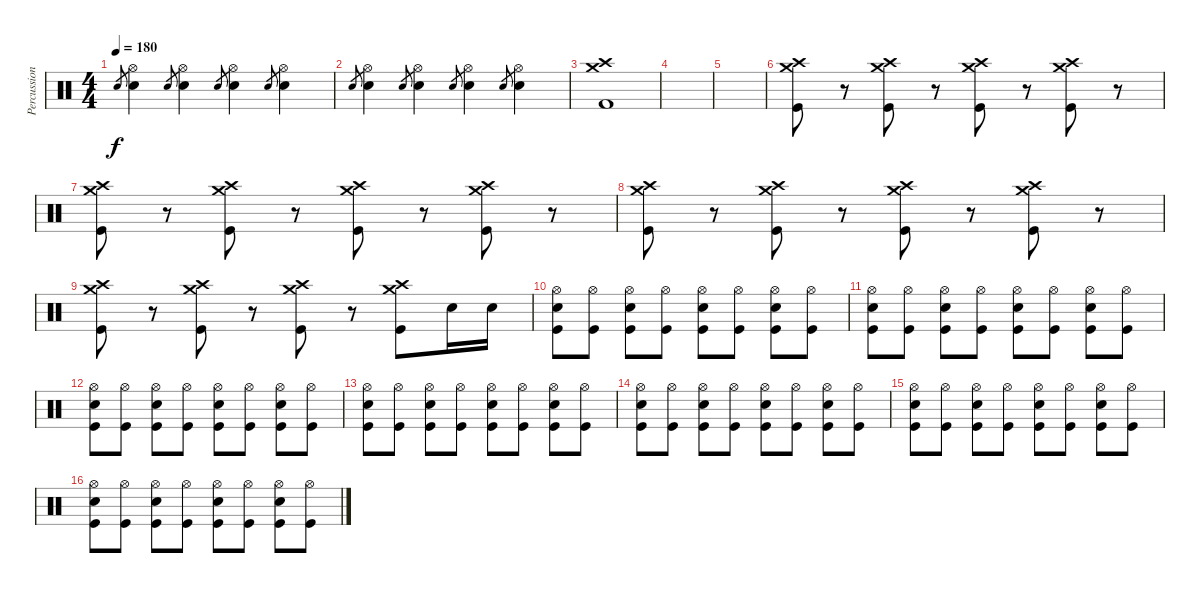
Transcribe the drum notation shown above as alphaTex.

\track ("Percussion" "Percussion") {instrument percussion}
\staff {score}
\articulation defaults
\ts (4 4)
\tempo 180
\clef neutral
\ks c "Snare (hit) 2".8{gr dy f}
("Hi-Hat (open)" "Snare (hit) 2").4 "Snare (hit) 2".8{gr} ("Hi-Hat (open)" "Snare (hit) 2").4 "Snare (hit) 2".8{gr} ("Hi-Hat (open)" "Snare (hit) 2").4 "Snare (hit) 2".8{gr} ("Hi-Hat (open)" "Snare (hit) 2").4 |
"Snare (hit) 2".8{gr} ("Hi-Hat (open)" "Snare (hit) 2").4 "Snare (hit) 2".8{gr} ("Hi-Hat (open)" "Snare (hit) 2").4 "Snare (hit) 2".8{gr} ("Hi-Hat (open)" "Snare (hit) 2").4 "Snare (hit) 2".8{gr} ("Hi-Hat (open)" "Snare (hit) 2").4 |
("Crash high (hit)" "Crash medium (hit)" "Kick (hit) 2").1 |
|
|
("Crash high (hit)" "Crash medium (hit)" "Kick (hit)").8 r.8 ("Crash high (hit)" "Crash medium (hit)" "Kick (hit)").8 r.8 ("Crash high (hit)" "Crash medium (hit)" "Kick (hit)").8 r.8 ("Crash high (hit)" "Crash medium (hit)" "Kick (hit)").8 r.8 |
("Crash high (hit)" "Crash medium (hit)" "Kick (hit)").8 r.8 ("Crash high (hit)" "Crash medium (hit)" "Kick (hit)").8 r.8 ("Crash high (hit)" "Crash medium (hit)" "Kick (hit)").8 r.8 ("Crash high (hit)" "Crash medium (hit)" "Kick (hit)").8 r.8 |
("Crash high (hit)" "Crash medium (hit)" "Kick (hit)").8 r.8 ("Crash high (hit)" "Crash medium (hit)" "Kick (hit)").8 r.8 ("Crash high (hit)" "Crash medium (hit)" "Kick (hit)").8 r.8 ("Crash high (hit)" "Crash medium (hit)" "Kick (hit)").8 r.8 |
("Crash high (hit)" "Crash medium (hit)" "Kick (hit)").8 r.8 ("Crash high (hit)" "Crash medium (hit)" "Kick (hit)").8 r.8 ("Crash high (hit)" "Crash medium (hit)" "Kick (hit)").8 r.8 ("Crash high (hit)" "Crash medium (hit)" "Kick (hit)").8 "Snare (hit) 2".16 "Snare (hit) 2".16 |
("Hi-Hat (open)" "Snare (hit) 2" "Kick (hit)").8 ("Hi-Hat (open)" "Kick (hit)").8 ("Hi-Hat (open)" "Snare (hit) 2" "Kick (hit)").8 ("Hi-Hat (open)" "Kick (hit)").8 ("Hi-Hat (open)" "Snare (hit) 2" "Kick (hit)").8 ("Hi-Hat (open)" "Kick (hit)").8 ("Hi-Hat (open)" "Snare (hit) 2" "Kick (hit)").8 ("Hi-Hat (open)" "Kick (hit)").8 |
("Hi-Hat (open)" "Snare (hit) 2" "Kick (hit)").8 ("Hi-Hat (open)" "Kick (hit)").8 ("Hi-Hat (open)" "Snare (hit) 2" "Kick (hit)").8 ("Hi-Hat (open)" "Kick (hit)").8 ("Hi-Hat (open)" "Snare (hit) 2" "Kick (hit)").8 ("Hi-Hat (open)" "Kick (hit)").8 ("Hi-Hat (open)" "Snare (hit) 2" "Kick (hit)").8 ("Hi-Hat (open)" "Kick (hit)").8 |
("Hi-Hat (open)" "Snare (hit) 2" "Kick (hit)").8 ("Hi-Hat (open)" "Kick (hit)").8 ("Hi-Hat (open)" "Snare (hit) 2" "Kick (hit)").8 ("Hi-Hat (open)" "Kick (hit)").8 ("Hi-Hat (open)" "Snare (hit) 2" "Kick (hit)").8 ("Hi-Hat (open)" "Kick (hit)").8 ("Hi-Hat (open)" "Snare (hit) 2" "Kick (hit)").8 ("Hi-Hat (open)" "Kick (hit)").8 |
("Hi-Hat (open)" "Snare (hit) 2" "Kick (hit)").8 ("Hi-Hat (open)" "Kick (hit)").8 ("Hi-Hat (open)" "Snare (hit) 2" "Kick (hit)").8 ("Hi-Hat (open)" "Kick (hit)").8 ("Hi-Hat (open)" "Snare (hit) 2" "Kick (hit)").8 ("Hi-Hat (open)" "Kick (hit)").8 ("Hi-Hat (open)" "Snare (hit) 2" "Kick (hit)").8 ("Hi-Hat (open)" "Kick (hit)").8 |
("Hi-Hat (open)" "Snare (hit) 2" "Kick (hit)").8 ("Hi-Hat (open)" "Kick (hit)").8 ("Hi-Hat (open)" "Snare (hit) 2" "Kick (hit)").8 ("Hi-Hat (open)" "Kick (hit)").8 ("Hi-Hat (open)" "Snare (hit) 2" "Kick (hit)").8 ("Hi-Hat (open)" "Kick (hit)").8 ("Hi-Hat (open)" "Snare (hit) 2" "Kick (hit)").8 ("Hi-Hat (open)" "Kick (hit)").8 |
("Hi-Hat (open)" "Snare (hit) 2" "Kick (hit)").8 ("Hi-Hat (open)" "Kick (hit)").8 ("Hi-Hat (open)" "Snare (hit) 2" "Kick (hit)").8 ("Hi-Hat (open)" "Kick (hit)").8 ("Hi-Hat (open)" "Snare (hit) 2" "Kick (hit)").8 ("Hi-Hat (open)" "Kick (hit)").8 ("Hi-Hat (open)" "Snare (hit) 2" "Kick (hit)").8 ("Hi-Hat (open)" "Kick (hit)").8 |
("Hi-Hat (open)" "Snare (hit) 2" "Kick (hit)").8 ("Hi-Hat (open)" "Kick (hit)").8 ("Hi-Hat (open)" "Snare (hit) 2" "Kick (hit)").8 ("Hi-Hat (open)" "Kick (hit)").8 ("Hi-Hat (open)" "Snare (hit) 2" "Kick (hit)").8 ("Hi-Hat (open)" "Kick (hit)").8 ("Hi-Hat (open)" "Snare (hit) 2" "Kick (hit)").8 ("Hi-Hat (open)" "Kick (hit)").8
